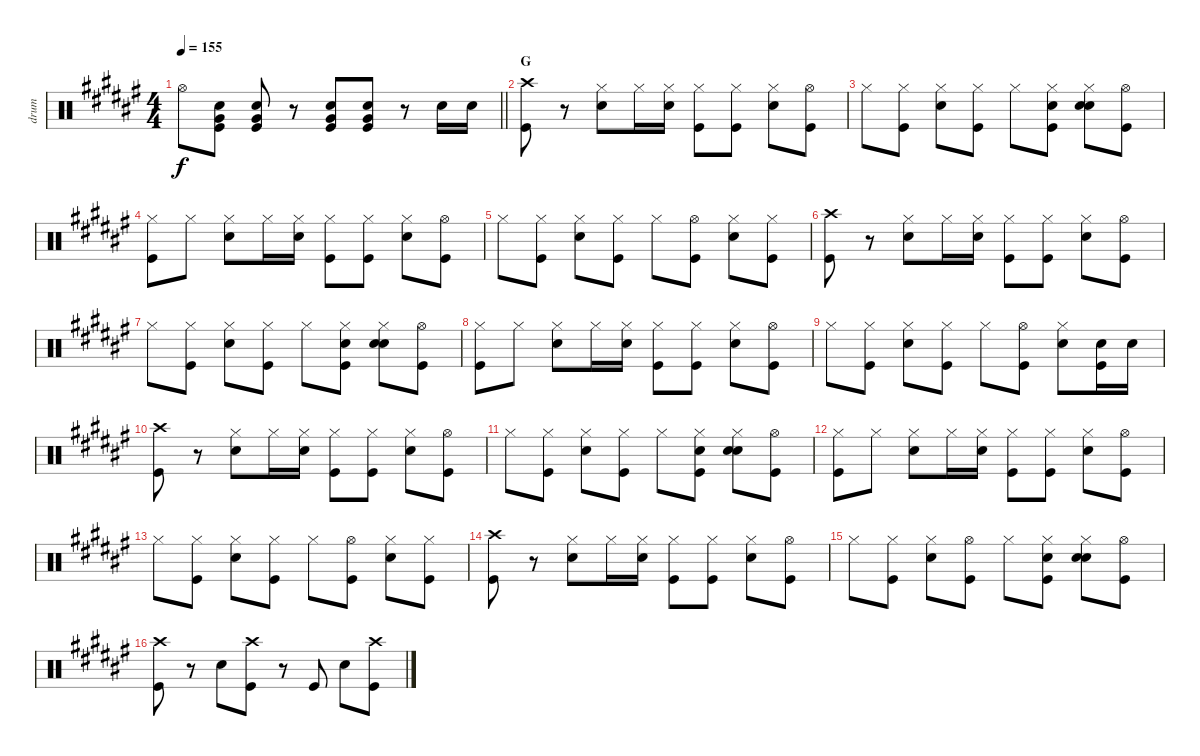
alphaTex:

\track ("drum" "drum") {instrument percussion}
\staff {score}
\articulation defaults
\ts (4 4)
\tempo 155
\clef neutral
\barLineRight lightlight
\ks f# "Hi-Hat (open)".8{dy f}
("Snare (hit) 2" "Very Low Tom (hit)" "Kick (hit)").8 ("Snare (hit) 2" "Very Low Tom (hit)" "Kick (hit)").8 r.8 ("Snare (hit) 2" "Very Low Tom (hit)" "Kick (hit)").8 ("Snare (hit) 2" "Very Low Tom (hit)" "Kick (hit)").8 r.8 "Snare (hit) 2".16 "Snare (hit) 2".16 |
\section ("" "G")
("Crash high (hit)" "Kick (hit)").8 r.8 ("Hi-Hat (closed)" "Snare (hit) 2").8 "Hi-Hat (closed)".16 ("Hi-Hat (closed)" "Snare (hit) 2").16 ("Hi-Hat (closed)" "Kick (hit)").8 ("Hi-Hat (closed)" "Kick (hit)").8 ("Hi-Hat (closed)" "Snare (hit) 2").8 ("Hi-Hat (open)" "Kick (hit)").8 |
"Hi-Hat (closed)".8 ("Hi-Hat (closed)" "Kick (hit)").8 ("Hi-Hat (closed)" "Snare (hit) 2").8 ("Hi-Hat (closed)" "Kick (hit)").8 "Hi-Hat (closed)".8 ("Hi-Hat (closed)" "Hand Clap (hit)" "Kick (hit)").8 ("Hi-Hat (closed)" "Snare (hit) 2" "Hand Clap (hit)").8 ("Hi-Hat (open)" "Kick (hit)").8 |
("Hi-Hat (closed)" "Kick (hit)").8 "Hi-Hat (closed)".8 ("Hi-Hat (closed)" "Snare (hit) 2").8 "Hi-Hat (closed)".16 ("Hi-Hat (closed)" "Snare (hit) 2").16 ("Hi-Hat (closed)" "Kick (hit)").8 ("Hi-Hat (closed)" "Kick (hit)").8 ("Hi-Hat (closed)" "Snare (hit) 2").8 ("Hi-Hat (open)" "Kick (hit)").8 |
"Hi-Hat (closed)".8 ("Hi-Hat (closed)" "Kick (hit)").8 ("Hi-Hat (closed)" "Snare (hit) 2").8 ("Hi-Hat (closed)" "Kick (hit)").8 "Hi-Hat (closed)".8 ("Hi-Hat (open)" "Kick (hit)").8 ("Hi-Hat (closed)" "Snare (hit) 2").8 ("Hi-Hat (closed)" "Kick (hit)").8 |
("Crash high (hit)" "Kick (hit)").8 r.8 ("Hi-Hat (closed)" "Snare (hit) 2").8 "Hi-Hat (closed)".16 ("Hi-Hat (closed)" "Snare (hit) 2").16 ("Hi-Hat (closed)" "Kick (hit)").8 ("Hi-Hat (closed)" "Kick (hit)").8 ("Hi-Hat (closed)" "Snare (hit) 2").8 ("Hi-Hat (open)" "Kick (hit)").8 |
"Hi-Hat (closed)".8 ("Hi-Hat (closed)" "Kick (hit)").8 ("Hi-Hat (closed)" "Snare (hit) 2").8 ("Hi-Hat (closed)" "Kick (hit)").8 "Hi-Hat (closed)".8 ("Hi-Hat (closed)" "Hand Clap (hit)" "Kick (hit)").8 ("Hi-Hat (closed)" "Snare (hit) 2" "Hand Clap (hit)").8 ("Hi-Hat (open)" "Kick (hit)").8 |
("Hi-Hat (closed)" "Kick (hit)").8 "Hi-Hat (closed)".8 ("Hi-Hat (closed)" "Snare (hit) 2").8 "Hi-Hat (closed)".16 ("Hi-Hat (closed)" "Snare (hit) 2").16 ("Hi-Hat (closed)" "Kick (hit)").8 ("Hi-Hat (closed)" "Kick (hit)").8 ("Hi-Hat (closed)" "Snare (hit) 2").8 ("Hi-Hat (open)" "Kick (hit)").8 |
"Hi-Hat (closed)".8 ("Hi-Hat (closed)" "Kick (hit)").8 ("Hi-Hat (closed)" "Snare (hit) 2").8 ("Hi-Hat (closed)" "Kick (hit)").8 "Hi-Hat (closed)".8 ("Hi-Hat (open)" "Kick (hit)").8 ("Hi-Hat (closed)" "Snare (hit) 2").8 ("Snare (hit) 2" "Kick (hit)").16 "Snare (hit) 2".16 |
("Crash high (hit)" "Kick (hit)").8 r.8 ("Hi-Hat (closed)" "Snare (hit) 2").8 "Hi-Hat (closed)".16 ("Hi-Hat (closed)" "Snare (hit) 2").16 ("Hi-Hat (closed)" "Kick (hit)").8 ("Hi-Hat (closed)" "Kick (hit)").8 ("Hi-Hat (closed)" "Snare (hit) 2").8 ("Hi-Hat (open)" "Kick (hit)").8 |
"Hi-Hat (closed)".8 ("Hi-Hat (closed)" "Kick (hit)").8 ("Hi-Hat (closed)" "Snare (hit) 2").8 ("Hi-Hat (closed)" "Kick (hit)").8 "Hi-Hat (closed)".8 ("Hi-Hat (closed)" "Hand Clap (hit)" "Kick (hit)").8 ("Hi-Hat (closed)" "Snare (hit) 2" "Hand Clap (hit)").8 ("Hi-Hat (open)" "Kick (hit)").8 |
("Hi-Hat (closed)" "Kick (hit)").8 "Hi-Hat (closed)".8 ("Hi-Hat (closed)" "Snare (hit) 2").8 "Hi-Hat (closed)".16 ("Hi-Hat (closed)" "Snare (hit) 2").16 ("Hi-Hat (closed)" "Kick (hit)").8 ("Hi-Hat (closed)" "Kick (hit)").8 ("Hi-Hat (closed)" "Snare (hit) 2").8 ("Hi-Hat (open)" "Kick (hit)").8 |
"Hi-Hat (closed)".8 ("Hi-Hat (closed)" "Kick (hit)").8 ("Hi-Hat (closed)" "Snare (hit) 2").8 ("Hi-Hat (closed)" "Kick (hit)").8 "Hi-Hat (closed)".8 ("Hi-Hat (open)" "Kick (hit)").8 ("Hi-Hat (closed)" "Snare (hit) 2").8 ("Hi-Hat (closed)" "Kick (hit)").8 |
("Crash high (hit)" "Kick (hit)").8 r.8 ("Hi-Hat (closed)" "Snare (hit) 2").8 "Hi-Hat (closed)".16 ("Hi-Hat (closed)" "Snare (hit) 2").16 ("Hi-Hat (closed)" "Kick (hit)").8 ("Hi-Hat (closed)" "Kick (hit)").8 ("Hi-Hat (closed)" "Snare (hit) 2").8 ("Hi-Hat (open)" "Kick (hit)").8 |
"Hi-Hat (closed)".8 ("Hi-Hat (closed)" "Kick (hit)").8 ("Hi-Hat (closed)" "Snare (hit) 2").8 ("Hi-Hat (open)" "Kick (hit)").8 "Hi-Hat (closed)".8 ("Hi-Hat (closed)" "Hand Clap (hit)" "Kick (hit)").8 ("Hi-Hat (closed)" "Snare (hit) 2" "Hand Clap (hit)").8 ("Hi-Hat (open)" "Kick (hit)").8 |
("Crash high (hit)" "Kick (hit)").8 r.8 "Snare (hit) 2".8 ("Crash high (hit)" "Kick (hit)").8 r.8 "Kick (hit)".8 "Snare (hit) 2".8 ("Crash high (hit)" "Kick (hit)").8
